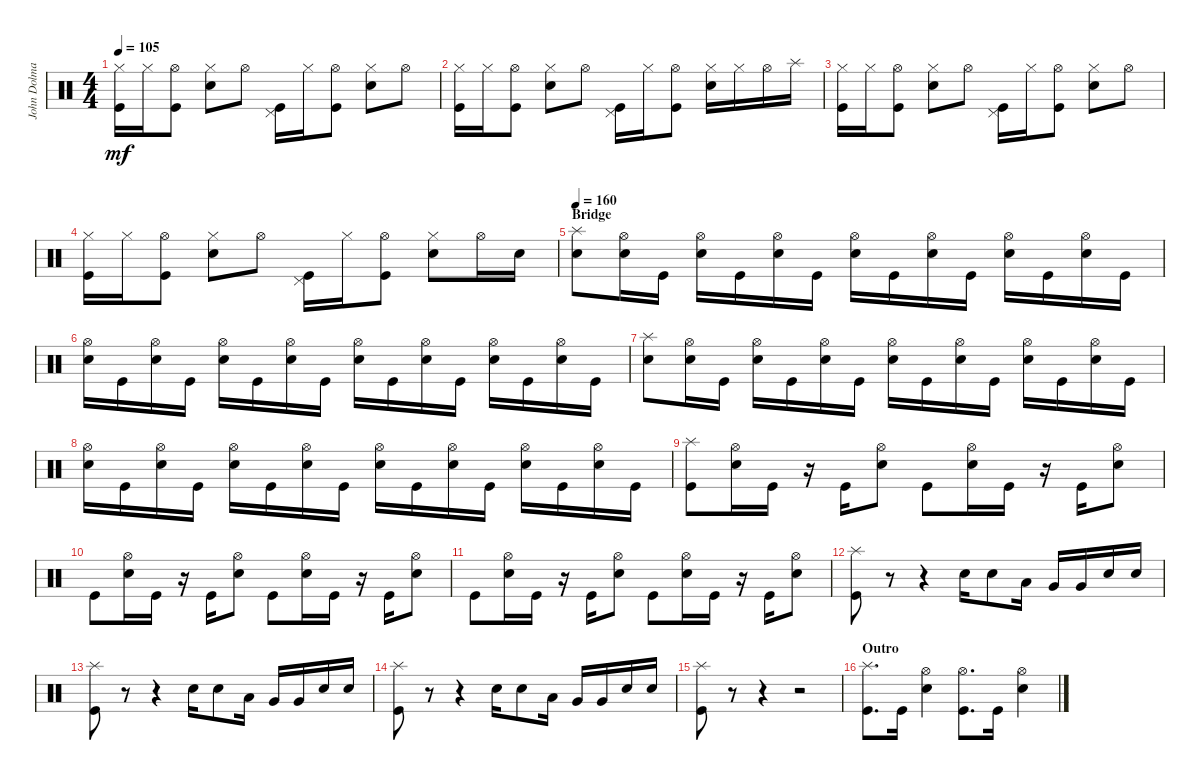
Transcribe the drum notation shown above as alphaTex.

\track ("John Dolmayan" "John Dolma") {instrument percussion}
\staff {score}
\articulation defaults
\ts (4 4)
\tempo 105
\clef neutral
\ks c
("Hi-Hat (closed)" "Kick (hit)").16{dy mf} "Hi-Hat (closed)".16 ("Hi-Hat (open)" "Kick (hit)").8 ("Hi-Hat (closed)" "Snare (hit) 2").8 "Hi-Hat (open)".8 ("Pedal Hi-Hat (hit)" "Kick (hit)").16 "Hi-Hat (closed)".16 ("Hi-Hat (open)" "Kick (hit)").8 ("Hi-Hat (closed)" "Snare (hit) 2").8 "Hi-Hat (open)".8 |
("Hi-Hat (closed)" "Kick (hit)").16 "Hi-Hat (closed)".16 ("Hi-Hat (open)" "Kick (hit)").8 ("Hi-Hat (closed)" "Snare (hit) 2").8 "Hi-Hat (open)".8 ("Pedal Hi-Hat (hit)" "Kick (hit)").16 "Hi-Hat (closed)".16 ("Hi-Hat (open)" "Kick (hit)").8 ("Snare (hit) 2" "Hi-Hat (closed)").16 "Hi-Hat (closed)".16 "Hi-Hat (open)".16 "Splash (hit)".16 |
("Hi-Hat (closed)" "Kick (hit)").16 "Hi-Hat (closed)".16 ("Hi-Hat (open)" "Kick (hit)").8 ("Hi-Hat (closed)" "Snare (hit) 2").8 "Hi-Hat (open)".8 ("Pedal Hi-Hat (hit)" "Kick (hit)").16 "Hi-Hat (closed)".16 ("Hi-Hat (open)" "Kick (hit)").8 ("Hi-Hat (closed)" "Snare (hit) 2").8 "Hi-Hat (open)".8 |
("Hi-Hat (closed)" "Kick (hit)").16 "Hi-Hat (closed)".16 ("Hi-Hat (open)" "Kick (hit)").8 ("Hi-Hat (closed)" "Snare (hit) 2").8 "Hi-Hat (open)".8 ("Pedal Hi-Hat (hit)" "Kick (hit)").16 "Hi-Hat (closed)".16 ("Hi-Hat (open)" "Kick (hit)").8 ("Hi-Hat (closed)" "Snare (hit) 2").8 "Hi-Hat (open)".16 "Snare (hit) 2".16 |
\section ("" "Bridge")
\tempo 160
("Snare (hit) 2" "Splash (hit)").8 ("Snare (hit) 2" "Hi-Hat (open)").16 "Kick (hit)".16 ("Snare (hit) 2" "Hi-Hat (open)").16 "Kick (hit)".16 ("Snare (hit) 2" "Hi-Hat (open)").16 "Kick (hit)".16 ("Snare (hit) 2" "Hi-Hat (open)").16 "Kick (hit)".16 ("Snare (hit) 2" "Hi-Hat (open)").16 "Kick (hit)".16 ("Snare (hit) 2" "Hi-Hat (open)").16 "Kick (hit)".16 ("Snare (hit) 2" "Hi-Hat (open)").16 "Kick (hit)".16 |
("Snare (hit) 2" "Hi-Hat (open)").16 "Kick (hit)".16 ("Snare (hit) 2" "Hi-Hat (open)").16 "Kick (hit)".16 ("Snare (hit) 2" "Hi-Hat (open)").16 "Kick (hit)".16 ("Snare (hit) 2" "Hi-Hat (open)").16 "Kick (hit)".16 ("Snare (hit) 2" "Hi-Hat (open)").16 "Kick (hit)".16 ("Snare (hit) 2" "Hi-Hat (open)").16 "Kick (hit)".16 ("Snare (hit) 2" "Hi-Hat (open)").16 "Kick (hit)".16 ("Snare (hit) 2" "Hi-Hat (open)").16 "Kick (hit)".16 |
("Snare (hit) 2" "Splash (hit)").8 ("Snare (hit) 2" "Hi-Hat (open)").16 "Kick (hit)".16 ("Snare (hit) 2" "Hi-Hat (open)").16 "Kick (hit)".16 ("Snare (hit) 2" "Hi-Hat (open)").16 "Kick (hit)".16 ("Snare (hit) 2" "Hi-Hat (open)").16 "Kick (hit)".16 ("Snare (hit) 2" "Hi-Hat (open)").16 "Kick (hit)".16 ("Snare (hit) 2" "Hi-Hat (open)").16 "Kick (hit)".16 ("Snare (hit) 2" "Hi-Hat (open)").16 "Kick (hit)".16 |
("Snare (hit) 2" "Hi-Hat (open)").16 "Kick (hit)".16 ("Snare (hit) 2" "Hi-Hat (open)").16 "Kick (hit)".16 ("Snare (hit) 2" "Hi-Hat (open)").16 "Kick (hit)".16 ("Snare (hit) 2" "Hi-Hat (open)").16 "Kick (hit)".16 ("Snare (hit) 2" "Hi-Hat (open)").16 "Kick (hit)".16 ("Snare (hit) 2" "Hi-Hat (open)").16 "Kick (hit)".16 ("Snare (hit) 2" "Hi-Hat (open)").16 "Kick (hit)".16 ("Snare (hit) 2" "Hi-Hat (open)").16 "Kick (hit)".16 |
("Kick (hit)" "Splash (hit)").8 ("Hi-Hat (open)" "Snare (hit) 2").16 "Kick (hit)".16 r.16 "Kick (hit)".16 ("Hi-Hat (open)" "Snare (hit) 2").8 "Kick (hit)".8 ("Hi-Hat (open)" "Snare (hit) 2").16 "Kick (hit)".16 r.16 "Kick (hit)".16 ("Hi-Hat (open)" "Snare (hit) 2").8 |
"Kick (hit)".8 ("Hi-Hat (open)" "Snare (hit) 2").16 "Kick (hit)".16 r.16 "Kick (hit)".16 ("Hi-Hat (open)" "Snare (hit) 2").8 "Kick (hit)".8 ("Hi-Hat (open)" "Snare (hit) 2").16 "Kick (hit)".16 r.16 "Kick (hit)".16 ("Hi-Hat (open)" "Snare (hit) 2").8 |
"Kick (hit)".8 ("Hi-Hat (open)" "Snare (hit) 2").16 "Kick (hit)".16 r.16 "Kick (hit)".16 ("Hi-Hat (open)" "Snare (hit) 2").8 "Kick (hit)".8 ("Hi-Hat (open)" "Snare (hit) 2").16 "Kick (hit)".16 r.16 "Kick (hit)".16 ("Hi-Hat (open)" "Snare (hit) 2").8 |
("Kick (hit)" "Splash (hit)").8 r.8 r.4 "Snare (hit) 2".16 "Snare (hit) 2".8 "Low Tom (hit)".16 "Very Low Tom (hit)".16 "Very Low Tom (hit)".16 "Snare (hit) 2".16 "Snare (hit) 2".16 |
("Kick (hit)" "Splash (hit)").8 r.8 r.4 "Snare (hit) 2".16 "Snare (hit) 2".8 "Low Tom (hit)".16 "Very Low Tom (hit)".16 "Very Low Tom (hit)".16 "Snare (hit) 2".16 "Snare (hit) 2".16 |
("Kick (hit)" "Splash (hit)").8 r.8 r.4 "Snare (hit) 2".16 "Snare (hit) 2".8 "Low Tom (hit)".16 "Very Low Tom (hit)".16 "Very Low Tom (hit)".16 "Snare (hit) 2".16 "Snare (hit) 2".16 |
("Kick (hit)" "Splash (hit)").8 r.8 r.4 r.2 |
\section ("" "Outro")
("Kick (hit)" "Splash (hit)").8{d} "Kick (hit)".16 ("Snare (hit) 2" "Hi-Hat (open)").4 ("Kick (hit)" "Hi-Hat (open)").8{d} "Kick (hit)".16 ("Snare (hit) 2" "Hi-Hat (open)").4
